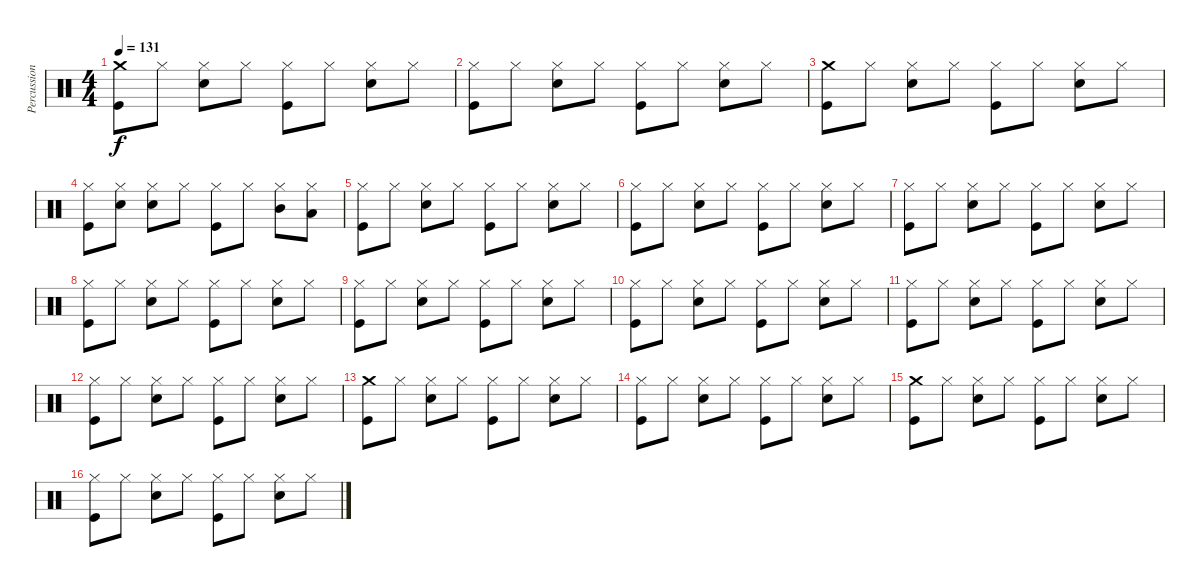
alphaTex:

\track ("Percussions" "Percussion") {instrument percussion}
\staff {score}
\articulation defaults
\ts (4 4)
\tempo 131
\clef neutral
\ks c
("Crash medium (hit)" "Kick (hit)").8{dy f} "Hi-Hat (closed)".8 ("Hi-Hat (closed)" "Snare (hit) 2").8 "Hi-Hat (closed)".8 ("Hi-Hat (closed)" "Kick (hit)").8 "Hi-Hat (closed)".8 ("Hi-Hat (closed)" "Snare (hit) 2").8 "Hi-Hat (closed)".8 |
("Hi-Hat (closed)" "Kick (hit)").8 "Hi-Hat (closed)".8 ("Hi-Hat (closed)" "Snare (hit) 2").8 "Hi-Hat (closed)".8 ("Hi-Hat (closed)" "Kick (hit)").8 "Hi-Hat (closed)".8 ("Hi-Hat (closed)" "Snare (hit) 2").8 "Hi-Hat (closed)".8 |
("Crash medium (hit)" "Kick (hit)").8 "Hi-Hat (closed)".8 ("Hi-Hat (closed)" "Snare (hit) 2").8 "Hi-Hat (closed)".8 ("Hi-Hat (closed)" "Kick (hit)").8 "Hi-Hat (closed)".8 ("Hi-Hat (closed)" "Snare (hit) 2").8 "Hi-Hat (closed)".8 |
("Hi-Hat (closed)" "Kick (hit)").8 ("Hi-Hat (closed)" "Snare (hit) 2").8 ("Hi-Hat (closed)" "Snare (hit) 2").8 "Hi-Hat (closed)".8 ("Hi-Hat (closed)" "Kick (hit)").8 "Hi-Hat (closed)".8 ("Hi-Hat (closed)" "Mid Tom (hit)").8 ("Hi-Hat (closed)" "Low Tom (hit)").8 |
("Hi-Hat (closed)" "Kick (hit)").8 "Hi-Hat (closed)".8 ("Hi-Hat (closed)" "Snare (hit) 2").8 "Hi-Hat (closed)".8 ("Hi-Hat (closed)" "Kick (hit)").8 "Hi-Hat (closed)".8 ("Hi-Hat (closed)" "Snare (hit) 2").8 "Hi-Hat (closed)".8 |
("Hi-Hat (closed)" "Kick (hit)").8 "Hi-Hat (closed)".8 ("Hi-Hat (closed)" "Snare (hit) 2").8 "Hi-Hat (closed)".8 ("Hi-Hat (closed)" "Kick (hit)").8 "Hi-Hat (closed)".8 ("Hi-Hat (closed)" "Snare (hit) 2").8 "Hi-Hat (closed)".8 |
("Hi-Hat (closed)" "Kick (hit)").8 "Hi-Hat (closed)".8 ("Hi-Hat (closed)" "Snare (hit) 2").8 "Hi-Hat (closed)".8 ("Hi-Hat (closed)" "Kick (hit)").8 "Hi-Hat (closed)".8 ("Hi-Hat (closed)" "Snare (hit) 2").8 "Hi-Hat (closed)".8 |
("Hi-Hat (closed)" "Kick (hit)").8 "Hi-Hat (closed)".8 ("Hi-Hat (closed)" "Snare (hit) 2").8 "Hi-Hat (closed)".8 ("Hi-Hat (closed)" "Kick (hit)").8 "Hi-Hat (closed)".8 ("Hi-Hat (closed)" "Snare (hit) 2").8 "Hi-Hat (closed)".8 |
("Hi-Hat (closed)" "Kick (hit)").8 "Hi-Hat (closed)".8 ("Hi-Hat (closed)" "Snare (hit) 2").8 "Hi-Hat (closed)".8 ("Hi-Hat (closed)" "Kick (hit)").8 "Hi-Hat (closed)".8 ("Hi-Hat (closed)" "Snare (hit) 2").8 "Hi-Hat (closed)".8 |
("Hi-Hat (closed)" "Kick (hit)").8 "Hi-Hat (closed)".8 ("Hi-Hat (closed)" "Snare (hit) 2").8 "Hi-Hat (closed)".8 ("Hi-Hat (closed)" "Kick (hit)").8 "Hi-Hat (closed)".8 ("Hi-Hat (closed)" "Snare (hit) 2").8 "Hi-Hat (closed)".8 |
("Hi-Hat (closed)" "Kick (hit)").8 "Hi-Hat (closed)".8 ("Hi-Hat (closed)" "Snare (hit) 2").8 "Hi-Hat (closed)".8 ("Hi-Hat (closed)" "Kick (hit)").8 "Hi-Hat (closed)".8 ("Hi-Hat (closed)" "Snare (hit) 2").8 "Hi-Hat (closed)".8 |
("Hi-Hat (closed)" "Kick (hit)").8 "Hi-Hat (closed)".8 ("Hi-Hat (closed)" "Snare (hit) 2").8 "Hi-Hat (closed)".8 ("Hi-Hat (closed)" "Kick (hit)").8 "Hi-Hat (closed)".8 ("Hi-Hat (closed)" "Snare (hit) 2").8 "Hi-Hat (closed)".8 |
("Crash medium (hit)" "Kick (hit)").8 "Hi-Hat (closed)".8 ("Hi-Hat (closed)" "Snare (hit) 2").8 "Hi-Hat (closed)".8 ("Hi-Hat (closed)" "Kick (hit)").8 "Hi-Hat (closed)".8 ("Hi-Hat (closed)" "Snare (hit) 2").8 "Hi-Hat (closed)".8 |
("Hi-Hat (closed)" "Kick (hit)").8 "Hi-Hat (closed)".8 ("Hi-Hat (closed)" "Snare (hit) 2").8 "Hi-Hat (closed)".8 ("Hi-Hat (closed)" "Kick (hit)").8 "Hi-Hat (closed)".8 ("Hi-Hat (closed)" "Snare (hit) 2").8 "Hi-Hat (closed)".8 |
("Crash medium (hit)" "Kick (hit)").8 "Hi-Hat (closed)".8 ("Hi-Hat (closed)" "Snare (hit) 2").8 "Hi-Hat (closed)".8 ("Hi-Hat (closed)" "Kick (hit)").8 "Hi-Hat (closed)".8 ("Hi-Hat (closed)" "Snare (hit) 2").8 "Hi-Hat (closed)".8 |
("Hi-Hat (closed)" "Kick (hit)").8 "Hi-Hat (closed)".8 ("Hi-Hat (closed)" "Snare (hit) 2").8 "Hi-Hat (closed)".8 ("Hi-Hat (closed)" "Kick (hit)").8 "Hi-Hat (closed)".8 ("Hi-Hat (closed)" "Snare (hit) 2").8 "Hi-Hat (closed)".8
